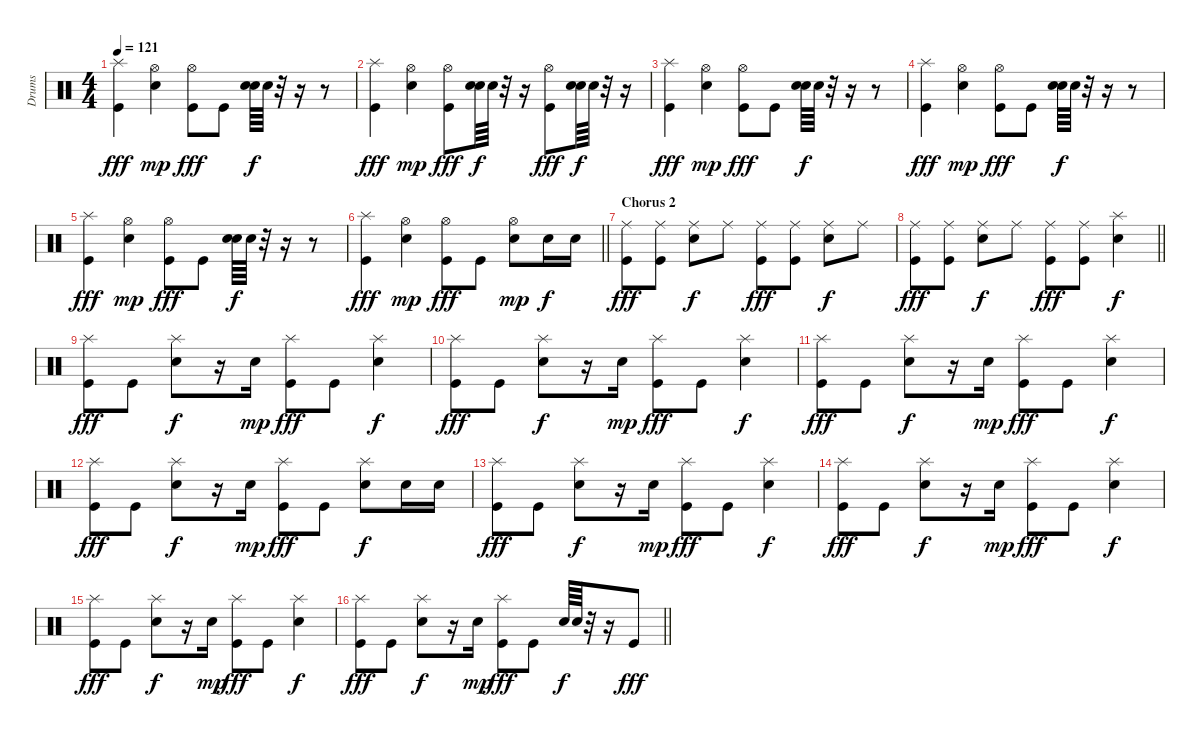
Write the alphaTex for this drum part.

\track ("Drums" "Drums") {instrument percussion}
\staff {score}
\articulation defaults
\ts (4 4)
\tempo 121
\clef neutral
\ks c
("Splash (hit)" "Kick (hit)").4{dy fff} ("Hi-Hat (open)" "Snare (hit) 2").4{dy mp} ("Hi-Hat (open)" "Kick (hit)").8{dy fff} "Kick (hit)".8 ("Snare (hit)"{x} "Snare (hit) 2").64{dy f} "Snare (hit) 2".64 r.32 r.16 r.8 |
("Splash (hit)" "Kick (hit)").4{dy fff} ("Hi-Hat (open)" "Snare (hit) 2").4{dy mp} ("Hi-Hat (open)" "Kick (hit)").8{dy fff} ("Snare (hit)"{x} "Snare (hit) 2").64{dy f} "Snare (hit) 2".64 r.32 r.16 ("Hi-Hat (open)" "Kick (hit)").8{dy fff} ("Snare (hit)"{x} "Snare (hit) 2").64{dy f} "Snare (hit) 2".64 r.32 r.16 |
("Splash (hit)" "Kick (hit)").4{dy fff} ("Hi-Hat (open)" "Snare (hit) 2").4{dy mp} ("Hi-Hat (open)" "Kick (hit)").8{dy fff} "Kick (hit)".8 ("Snare (hit)"{x} "Snare (hit) 2").64{dy f} "Snare (hit) 2".64 r.32 r.16 r.8 |
("Splash (hit)" "Kick (hit)").4{dy fff} ("Hi-Hat (open)" "Snare (hit) 2").4{dy mp} ("Hi-Hat (open)" "Kick (hit)").8{dy fff} "Kick (hit)".8 ("Snare (hit)"{x} "Snare (hit) 2").64{dy f} "Snare (hit) 2".64 r.32 r.16 r.8 |
("Splash (hit)" "Kick (hit)").4{dy fff} ("Hi-Hat (open)" "Snare (hit) 2").4{dy mp} ("Hi-Hat (open)" "Kick (hit)").8{dy fff} "Kick (hit)".8 ("Snare (hit)"{x} "Snare (hit) 2").64{dy f} "Snare (hit) 2".64 r.32 r.16 r.8 |
\barLineRight lightlight
("Splash (hit)" "Kick (hit)").4{dy fff} ("Hi-Hat (open)" "Snare (hit) 2").4{dy mp} ("Hi-Hat (open)" "Kick (hit)").8{dy fff} "Kick (hit)".8 ("Hi-Hat (open)" "Snare (hit) 2").8{dy mp} "Snare (hit) 2".16{dy f} "Snare (hit) 2".16 |
\section ("" "Chorus 2")
("Ride (middle)" "Kick (hit)").8{dy fff} ("Ride (middle)" "Kick (hit)").8 ("Ride (middle)" "Snare (hit) 2").8{dy f} "Ride (middle)".8 ("Ride (middle)" "Kick (hit)").8{dy fff} ("Ride (middle)" "Kick (hit)").8 ("Ride (middle)" "Snare (hit) 2").8{dy f} "Ride (middle)".8 |
\barLineRight lightlight
("Ride (middle)" "Kick (hit)").8{dy fff} ("Ride (middle)" "Kick (hit)").8 ("Ride (middle)" "Snare (hit) 2").8{dy f} "Ride (middle)".8 ("Ride (middle)" "Kick (hit)").8{dy fff} ("Ride (middle)" "Kick (hit)").8 ("Splash (hit)" "Snare (hit) 2").4{dy f} |
("Splash (hit)" "Kick (hit)").8{dy fff} "Kick (hit)".8 ("Splash (hit)" "Snare (hit) 2").8{dy f} r.16 "Snare (hit) 2".16{dy mp} ("Splash (hit)" "Kick (hit)").8{dy fff} "Kick (hit)".8 ("Splash (hit)" "Snare (hit) 2").4{dy f} |
("Splash (hit)" "Kick (hit)").8{dy fff} "Kick (hit)".8 ("Splash (hit)" "Snare (hit) 2").8{dy f} r.16 "Snare (hit) 2".16{dy mp} ("Splash (hit)" "Kick (hit)").8{dy fff} "Kick (hit)".8 ("Splash (hit)" "Snare (hit) 2").4{dy f} |
("Splash (hit)" "Kick (hit)").8{dy fff} "Kick (hit)".8 ("Splash (hit)" "Snare (hit) 2").8{dy f} r.16 "Snare (hit) 2".16{dy mp} ("Splash (hit)" "Kick (hit)").8{dy fff} "Kick (hit)".8 ("Splash (hit)" "Snare (hit) 2").4{dy f} |
("Splash (hit)" "Kick (hit)").8{dy fff} "Kick (hit)".8 ("Splash (hit)" "Snare (hit) 2").8{dy f} r.16 "Snare (hit) 2".16{dy mp} ("Splash (hit)" "Kick (hit)").8{dy fff} "Kick (hit)".8 ("Splash (hit)" "Snare (hit) 2").8{dy f} "Snare (hit) 2".16 "Snare (hit) 2".16 |
("Splash (hit)" "Kick (hit)").8{dy fff} "Kick (hit)".8 ("Splash (hit)" "Snare (hit) 2").8{dy f} r.16 "Snare (hit) 2".16{dy mp} ("Splash (hit)" "Kick (hit)").8{dy fff} "Kick (hit)".8 ("Splash (hit)" "Snare (hit) 2").4{dy f} |
("Splash (hit)" "Kick (hit)").8{dy fff} "Kick (hit)".8 ("Splash (hit)" "Snare (hit) 2").8{dy f} r.16 "Snare (hit) 2".16{dy mp} ("Splash (hit)" "Kick (hit)").8{dy fff} "Kick (hit)".8 ("Splash (hit)" "Snare (hit) 2").4{dy f} |
("Splash (hit)" "Kick (hit)").8{dy fff} "Kick (hit)".8 ("Splash (hit)" "Snare (hit) 2").8{dy f} r.16 "Snare (hit) 2".16{dy mp} ("Splash (hit)" "Kick (hit)").8{dy fff} "Kick (hit)".8 ("Splash (hit)" "Snare (hit) 2").4{dy f} |
\barLineRight lightlight
("Splash (hit)" "Kick (hit)").8{dy fff} "Kick (hit)".8 ("Splash (hit)" "Snare (hit) 2").8{dy f} r.16 "Snare (hit) 2".16{dy mp} ("Splash (hit)" "Kick (hit)").8{dy fff} "Kick (hit)".8 "Snare (hit) 2".64{dy f} "Snare (hit) 2".64 r.32 r.16 "Kick (hit)".8{dy fff}
